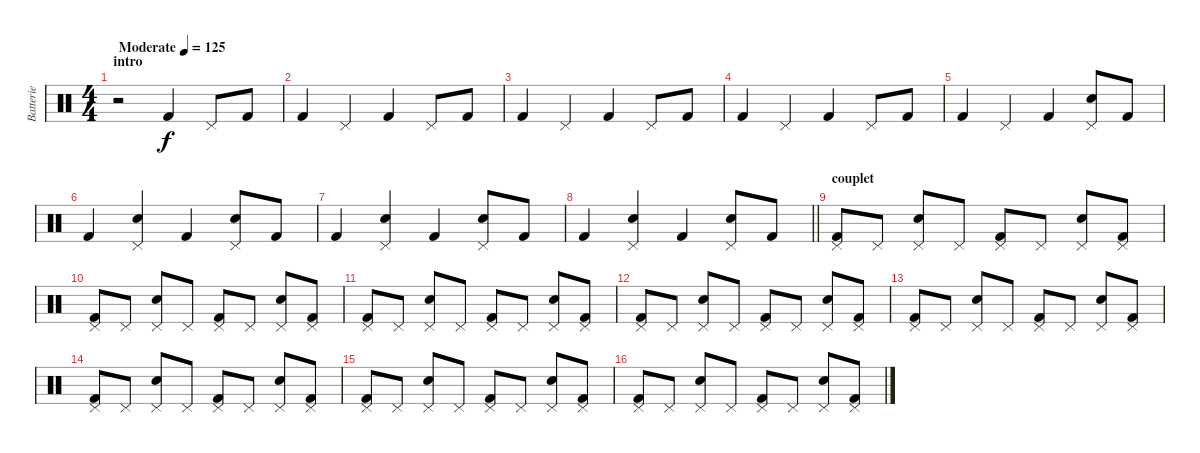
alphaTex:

\track ("Batterie" "Batterie") {instrument percussion}
\staff {score}
\articulation defaults
\ts (4 4)
\section ("" "intro")
\tempo (125 "Moderate")
\clef neutral
\ks c
r.2{dy f} "Kick (hit) 2".4 "Pedal Hi-Hat (hit)".8 "Kick (hit) 2".8 |
"Kick (hit) 2".4 "Pedal Hi-Hat (hit)".4 "Kick (hit) 2".4 "Pedal Hi-Hat (hit)".8 "Kick (hit) 2".8 |
"Kick (hit) 2".4 "Pedal Hi-Hat (hit)".4 "Kick (hit) 2".4 "Pedal Hi-Hat (hit)".8 "Kick (hit) 2".8 |
"Kick (hit) 2".4 "Pedal Hi-Hat (hit)".4 "Kick (hit) 2".4 "Pedal Hi-Hat (hit)".8 "Kick (hit) 2".8 |
"Kick (hit) 2".4 "Pedal Hi-Hat (hit)".4 "Kick (hit) 2".4 ("Pedal Hi-Hat (hit)" "Electric Snare (hit)").8 "Kick (hit) 2".8 |
"Kick (hit) 2".4 ("Pedal Hi-Hat (hit)" "Electric Snare (hit)").4 "Kick (hit) 2".4 ("Pedal Hi-Hat (hit)" "Electric Snare (hit)").8 "Kick (hit) 2".8 |
"Kick (hit) 2".4 ("Pedal Hi-Hat (hit)" "Electric Snare (hit)").4 "Kick (hit) 2".4 ("Pedal Hi-Hat (hit)" "Electric Snare (hit)").8 "Kick (hit) 2".8 |
\barLineRight lightlight "Kick (hit) 2".4
("Pedal Hi-Hat (hit)" "Electric Snare (hit)").4 "Kick (hit) 2".4 ("Pedal Hi-Hat (hit)" "Electric Snare (hit)").8 "Kick (hit) 2".8 |
\section ("" "couplet")
("Pedal Hi-Hat (hit)" "Kick (hit) 2").8 "Pedal Hi-Hat (hit)".8 ("Pedal Hi-Hat (hit)" "Electric Snare (hit)").8 "Pedal Hi-Hat (hit)".8 ("Pedal Hi-Hat (hit)" "Kick (hit) 2").8 "Pedal Hi-Hat (hit)".8 ("Pedal Hi-Hat (hit)" "Electric Snare (hit)").8 ("Pedal Hi-Hat (hit)" "Kick (hit) 2").8 |
("Pedal Hi-Hat (hit)" "Kick (hit) 2").8 "Pedal Hi-Hat (hit)".8 ("Pedal Hi-Hat (hit)" "Electric Snare (hit)").8 "Pedal Hi-Hat (hit)".8 ("Pedal Hi-Hat (hit)" "Kick (hit) 2").8 "Pedal Hi-Hat (hit)".8 ("Pedal Hi-Hat (hit)" "Electric Snare (hit)").8 ("Pedal Hi-Hat (hit)" "Kick (hit) 2").8 |
("Pedal Hi-Hat (hit)" "Kick (hit) 2").8 "Pedal Hi-Hat (hit)".8 ("Pedal Hi-Hat (hit)" "Electric Snare (hit)").8 "Pedal Hi-Hat (hit)".8 ("Pedal Hi-Hat (hit)" "Kick (hit) 2").8 "Pedal Hi-Hat (hit)".8 ("Pedal Hi-Hat (hit)" "Electric Snare (hit)").8 ("Pedal Hi-Hat (hit)" "Kick (hit) 2").8 |
("Pedal Hi-Hat (hit)" "Kick (hit) 2").8 "Pedal Hi-Hat (hit)".8 ("Pedal Hi-Hat (hit)" "Electric Snare (hit)").8 "Pedal Hi-Hat (hit)".8 ("Pedal Hi-Hat (hit)" "Kick (hit) 2").8 "Pedal Hi-Hat (hit)".8 ("Pedal Hi-Hat (hit)" "Electric Snare (hit)").8 ("Pedal Hi-Hat (hit)" "Kick (hit) 2").8 |
("Pedal Hi-Hat (hit)" "Kick (hit) 2").8 "Pedal Hi-Hat (hit)".8 ("Pedal Hi-Hat (hit)" "Electric Snare (hit)").8 "Pedal Hi-Hat (hit)".8 ("Pedal Hi-Hat (hit)" "Kick (hit) 2").8 "Pedal Hi-Hat (hit)".8 ("Pedal Hi-Hat (hit)" "Electric Snare (hit)").8 ("Pedal Hi-Hat (hit)" "Kick (hit) 2").8 |
("Pedal Hi-Hat (hit)" "Kick (hit) 2").8 "Pedal Hi-Hat (hit)".8 ("Pedal Hi-Hat (hit)" "Electric Snare (hit)").8 "Pedal Hi-Hat (hit)".8 ("Pedal Hi-Hat (hit)" "Kick (hit) 2").8 "Pedal Hi-Hat (hit)".8 ("Pedal Hi-Hat (hit)" "Electric Snare (hit)").8 ("Pedal Hi-Hat (hit)" "Kick (hit) 2").8 |
("Pedal Hi-Hat (hit)" "Kick (hit) 2").8 "Pedal Hi-Hat (hit)".8 ("Pedal Hi-Hat (hit)" "Electric Snare (hit)").8 "Pedal Hi-Hat (hit)".8 ("Pedal Hi-Hat (hit)" "Kick (hit) 2").8 "Pedal Hi-Hat (hit)".8 ("Pedal Hi-Hat (hit)" "Electric Snare (hit)").8 ("Pedal Hi-Hat (hit)" "Kick (hit) 2").8 |
("Pedal Hi-Hat (hit)" "Kick (hit) 2").8 "Pedal Hi-Hat (hit)".8 ("Pedal Hi-Hat (hit)" "Electric Snare (hit)").8 "Pedal Hi-Hat (hit)".8 ("Pedal Hi-Hat (hit)" "Kick (hit) 2").8 "Pedal Hi-Hat (hit)".8 ("Pedal Hi-Hat (hit)" "Electric Snare (hit)").8 ("Pedal Hi-Hat (hit)" "Kick (hit) 2").8
